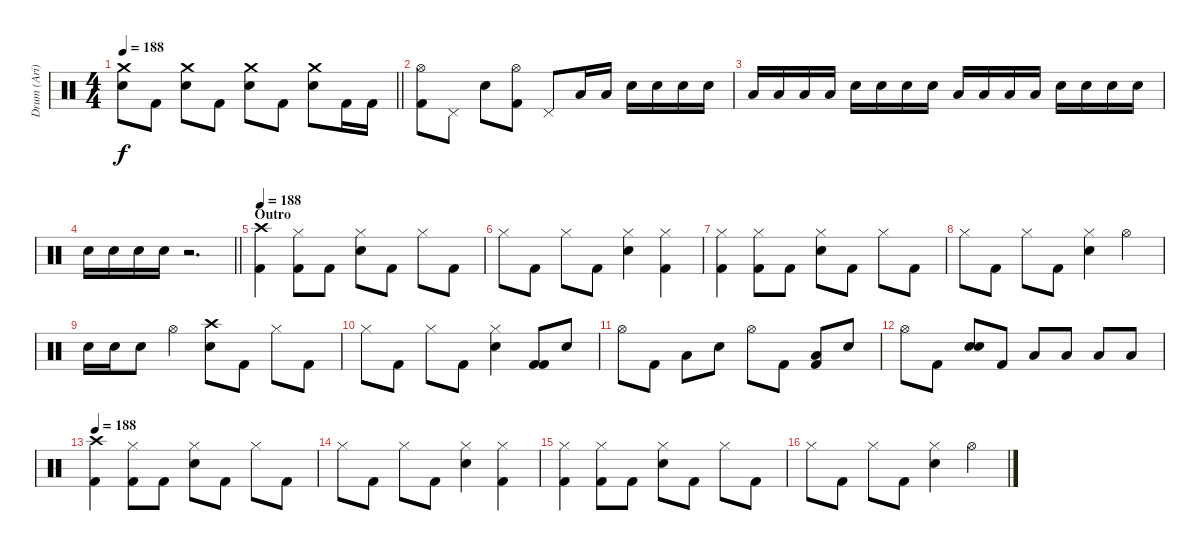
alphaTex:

\track ("Drum (Ari)" "Drum (Ari)") {instrument percussion}
\staff {score}
\articulation defaults
\ts (4 4)
\tempo 188
\clef neutral
\barLineRight lightlight
\ks c
("Crash medium (hit)" "Electric Snare (hit)").8{dy f} "Kick (hit) 2".8 ("Crash medium (hit)" "Electric Snare (hit)").8 "Kick (hit) 2".8 ("Crash medium (hit)" "Electric Snare (hit)").8 "Kick (hit) 2".8 ("Crash medium (hit)" "Electric Snare (hit)").8 "Kick (hit) 2".16 "Kick (hit) 2".16 |
\section ("" "")
("Hi-Hat (open)" "Kick (hit) 2").8 "Pedal Hi-Hat (hit)".8 "Electric Snare (hit)".8 ("Hi-Hat (open)" "Kick (hit) 2").8 "Pedal Hi-Hat (hit)".8 "Low Tom (hit)".16 "Low Tom (hit)".16 "Electric Snare (hit)".16 "Electric Snare (hit)".16 "Electric Snare (hit)".16 "Electric Snare (hit)".16 |
"Low Tom (hit)".16 "Low Tom (hit)".16 "Low Floor Tom (hit)".16 "Low Floor Tom (hit)".16 "Electric Snare (hit)".16 "Electric Snare (hit)".16 "Electric Snare (hit)".16 "Electric Snare (hit)".16 "Low Tom (hit)".16 "Low Tom (hit)".16 "Low Floor Tom (hit)".16 "Low Floor Tom (hit)".16 "Electric Snare (hit)".16 "Electric Snare (hit)".16 "Electric Snare (hit)".16 "Electric Snare (hit)".16 |
\barLineRight lightlight "Electric Snare (hit)".16 "Electric Snare (hit)".16 "Electric Snare (hit)".16 "Electric Snare (hit)".16
r.2{d} |
\section ("" "Outro")
\tempo 188
("Crash high (hit)" "Kick (hit) 2").4 ("Hi-Hat (closed)" "Kick (hit) 2").8 "Kick (hit) 2".8 ("Hi-Hat (closed)" "Electric Snare (hit)").8 "Kick (hit) 2".8 "Hi-Hat (closed)".8 "Kick (hit) 2".8 |
"Hi-Hat (closed)".8 "Kick (hit) 2".8 "Hi-Hat (closed)".8 "Kick (hit) 2".8 ("Hi-Hat (closed)" "Electric Snare (hit)").4 ("Hi-Hat (closed)" "Kick (hit) 2").4 |
("Hi-Hat (closed)" "Kick (hit) 2").4 ("Hi-Hat (closed)" "Kick (hit) 2").8 "Kick (hit) 2".8 ("Hi-Hat (closed)" "Electric Snare (hit)").8 "Kick (hit) 2".8 "Hi-Hat (closed)".8 "Kick (hit) 2".8 |
"Hi-Hat (closed)".8 "Kick (hit) 2".8 "Hi-Hat (closed)".8 "Kick (hit) 2".8 ("Hi-Hat (closed)" "Electric Snare (hit)").4 "Hi-Hat (open)".4 |
"Electric Snare (hit)".16{volume 8} "Electric Snare (hit)".16 "Electric Snare (hit)".8{volume 13} "Hi-Hat (open)".4 ("Crash high (hit)" "Electric Snare (hit)").8 "Kick (hit) 2".8 "Hi-Hat (closed)".8 "Kick (hit) 2".8 |
"Hi-Hat (closed)".8 "Kick (hit) 2".8 "Hi-Hat (closed)".8 "Kick (hit) 2".8 ("Hi-Hat (closed)" "Electric Snare (hit)").4 ("Kick (hit) 2" "Kick (hit) 2").8 "Electric Snare (hit)".8 |
"Hi-Hat (open)".8 "Kick (hit) 2".8 "Low Floor Tom (hit)".8 "Electric Snare (hit)".8 "Hi-Hat (open)".8 "Kick (hit) 2".8 ("Kick (hit) 2" "Low Floor Tom (hit)").8 "Electric Snare (hit)".8 |
"Hi-Hat (open)".8 "Kick (hit) 2".8 ("Electric Snare (hit)" "Electric Snare (hit)").8 "Kick (hit) 2".8 "Low Tom (hit)".8 "Low Tom (hit)".8 "Low Floor Tom (hit)".8 "Low Floor Tom (hit)".8 |
\tempo 188
("Crash high (hit)" "Kick (hit) 2").4 ("Hi-Hat (closed)" "Kick (hit) 2").8 "Kick (hit) 2".8 ("Hi-Hat (closed)" "Electric Snare (hit)").8 "Kick (hit) 2".8 "Hi-Hat (closed)".8 "Kick (hit) 2".8 |
"Hi-Hat (closed)".8 "Kick (hit) 2".8 "Hi-Hat (closed)".8 "Kick (hit) 2".8 ("Hi-Hat (closed)" "Electric Snare (hit)").4 ("Hi-Hat (closed)" "Kick (hit) 2").4 |
("Hi-Hat (closed)" "Kick (hit) 2").4 ("Hi-Hat (closed)" "Kick (hit) 2").8 "Kick (hit) 2".8 ("Hi-Hat (closed)" "Electric Snare (hit)").8 "Kick (hit) 2".8 "Hi-Hat (closed)".8 "Kick (hit) 2".8 |
"Hi-Hat (closed)".8 "Kick (hit) 2".8 "Hi-Hat (closed)".8 "Kick (hit) 2".8 ("Hi-Hat (closed)" "Electric Snare (hit)").4 "Hi-Hat (open)".4
